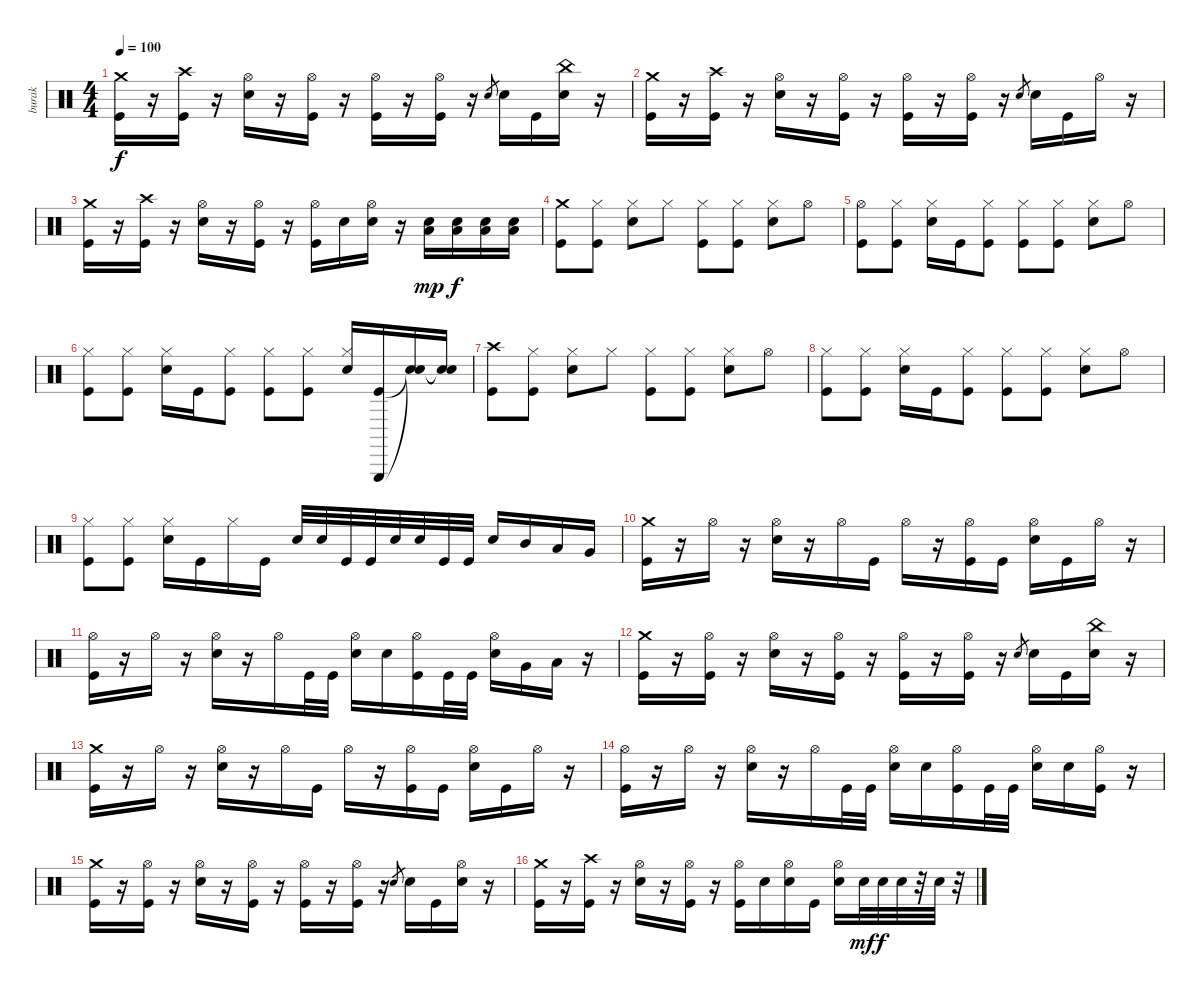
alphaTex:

\track ("burak" "burak") {instrument percussion}
\staff {score}
\articulation defaults
\ts (4 4)
\tempo 100
\clef neutral
\ks c
("Crash medium (hit)" "Kick (hit)").16{dy f} r.16 ("Crash high (hit)" "Kick (hit)").16 r.16 ("Hi-Hat (open)" "Electric Snare (hit)").16 r.16 ("Hi-Hat (open)" "Kick (hit)").16 r.16 ("Hi-Hat (open)" "Kick (hit)").16 r.16 ("Hi-Hat (open)" "Kick (hit)").16 r.16 "Electric Snare (hit)".8{gr} "Electric Snare (hit)".16 "Kick (hit)".16 ("China (hit)" "Electric Snare (hit)").16 r.16 |
("Crash medium (hit)" "Kick (hit)").16 r.16 ("Crash high (hit)" "Kick (hit)").16 r.16 ("Hi-Hat (open)" "Electric Snare (hit)").16 r.16 ("Hi-Hat (open)" "Kick (hit)").16 r.16 ("Hi-Hat (open)" "Kick (hit)").16 r.16 ("Hi-Hat (open)" "Kick (hit)").16 r.16 "Electric Snare (hit)".8{gr} "Electric Snare (hit)".16 "Kick (hit)".16 "Hi-Hat (open)".16 r.16 |
("Crash medium (hit)" "Kick (hit)").16 r.16 ("Crash high (hit)" "Kick (hit)").16 r.16 ("Hi-Hat (open)" "Electric Snare (hit)").16 r.16 ("Hi-Hat (open)" "Kick (hit)").16 r.16 ("Hi-Hat (open)" "Kick (hit)").16 "Electric Snare (hit)".16 ("Hi-Hat (open)" "Electric Snare (hit)").16 r.16 ("Low Floor Tom (hit)" "Electric Snare (hit)").16{dy mp} ("Low Floor Tom (hit)" "Electric Snare (hit)").16{dy f} ("Low Floor Tom (hit)" "Electric Snare (hit)").16 ("Low Floor Tom (hit)" "Electric Snare (hit)").16 |
("Crash medium (hit)" "Kick (hit)").8 ("Hi-Hat (closed)" "Kick (hit)").8 ("Hi-Hat (closed)" "Electric Snare (hit)").8 "Hi-Hat (closed)".8 ("Hi-Hat (closed)" "Kick (hit)").8 ("Hi-Hat (closed)" "Kick (hit)").8 ("Hi-Hat (closed)" "Electric Snare (hit)").8 "Hi-Hat (open)".8 |
("Hi-Hat (open)" "Kick (hit)").8 ("Hi-Hat (closed)" "Kick (hit)").8 ("Hi-Hat (closed)" "Electric Snare (hit)").16 "Kick (hit)".16 ("Hi-Hat (closed)" "Kick (hit)").8 ("Hi-Hat (closed)" "Kick (hit)").8 ("Hi-Hat (closed)" "Kick (hit)").8 ("Hi-Hat (closed)" "Electric Snare (hit)").8 "Hi-Hat (open)".8 |
("Hi-Hat (closed)" "Kick (hit)").8 ("Hi-Hat (closed)" "Kick (hit)").8 ("Hi-Hat (closed)" "Electric Snare (hit)").16 "Kick (hit)".16 ("Hi-Hat (closed)" "Kick (hit)").8 ("Hi-Hat (closed)" "Kick (hit)").8 ("Hi-Hat (closed)" "Kick (hit)").8 ("Hi-Hat (closed)" "Electric Snare (hit)").16 ("Triangle (hit)" "Kick (hit)").16 ("Snare (hit)"{t} "Snare (hit)"{t}).16 ("Snare (hit)"{t} "Snare (hit)"{t}).16 |
("Crash high (hit)" "Kick (hit)").8 ("Hi-Hat (closed)" "Kick (hit)").8 ("Hi-Hat (closed)" "Electric Snare (hit)").8 "Hi-Hat (closed)".8 ("Hi-Hat (closed)" "Kick (hit)").8 ("Hi-Hat (closed)" "Kick (hit)").8 ("Hi-Hat (closed)" "Electric Snare (hit)").8 "Hi-Hat (open)".8 |
("Hi-Hat (closed)" "Kick (hit)").8 ("Hi-Hat (closed)" "Kick (hit)").8 ("Hi-Hat (closed)" "Electric Snare (hit)").16 "Kick (hit)".16 ("Hi-Hat (closed)" "Kick (hit)").8 ("Hi-Hat (closed)" "Kick (hit)").8 ("Hi-Hat (closed)" "Kick (hit)").8 ("Hi-Hat (closed)" "Electric Snare (hit)").8 "Hi-Hat (open)".8 |
("Hi-Hat (closed)" "Kick (hit)").8 ("Hi-Hat (closed)" "Kick (hit)").8 ("Hi-Hat (closed)" "Electric Snare (hit)").16 "Kick (hit)".16 "Hi-Hat (closed)".16 "Kick (hit)".16 "Electric Snare (hit)".32 "Electric Snare (hit)".32 "Kick (hit)".32 "Kick (hit)".32 "Electric Snare (hit)".32 "Electric Snare (hit)".32 "Kick (hit)".32 "Kick (hit)".32 "Electric Snare (hit)".16 "Mid Tom (hit)".16 "Low Tom (hit)".16 "Very Low Tom (hit)".16 |
("Crash medium (hit)" "Kick (hit)").16 r.16 "Hi-Hat (open)".16 r.16 ("Hi-Hat (open)" "Electric Snare (hit)").16 r.16 "Hi-Hat (open)".16 "Kick (hit)".16 "Hi-Hat (open)".16 r.16 ("Hi-Hat (open)" "Kick (hit)").16 "Kick (hit)".16 ("Hi-Hat (open)" "Electric Snare (hit)").16 "Kick (hit)".16 "Hi-Hat (open)".16 r.16 |
("Hi-Hat (open)" "Kick (hit)").16 r.16 "Hi-Hat (open)".16 r.16 ("Hi-Hat (open)" "Electric Snare (hit)").16 r.16 "Hi-Hat (open)".16 "Kick (hit)".32 "Kick (hit)".32 ("Hi-Hat (open)" "Electric Snare (hit)").16 "Electric Snare (hit)".16 ("Hi-Hat (open)" "Kick (hit)").16 "Kick (hit)".32 "Kick (hit)".32 ("Hi-Hat (open)" "Electric Snare (hit)").16 "Very Low Tom (hit)".16 "Low Floor Tom (hit)".16 r.16 |
("Crash medium (hit)" "Kick (hit)").16 r.16 ("Hi-Hat (open)" "Kick (hit)").16 r.16 ("Hi-Hat (open)" "Electric Snare (hit)").16 r.16 ("Hi-Hat (open)" "Kick (hit)").16 r.16 ("Hi-Hat (open)" "Kick (hit)").16 r.16 ("Hi-Hat (open)" "Kick (hit)").16 r.16 "Electric Snare (hit)".8{gr} "Electric Snare (hit)".16 "Kick (hit)".16 ("China (hit)" "Electric Snare (hit)").16 r.16 |
("Crash medium (hit)" "Kick (hit)").16 r.16 "Hi-Hat (open)".16 r.16 ("Hi-Hat (open)" "Electric Snare (hit)").16 r.16 "Hi-Hat (open)".16 "Kick (hit)".16 "Hi-Hat (open)".16 r.16 ("Hi-Hat (open)" "Kick (hit)").16 "Kick (hit)".16 ("Hi-Hat (open)" "Electric Snare (hit)").16 "Kick (hit)".16 "Hi-Hat (open)".16 r.16 |
("Hi-Hat (open)" "Kick (hit)").16 r.16 "Hi-Hat (open)".16 r.16 ("Hi-Hat (open)" "Electric Snare (hit)").16 r.16 "Hi-Hat (open)".16 "Kick (hit)".32 "Kick (hit)".32 ("Hi-Hat (open)" "Electric Snare (hit)").16 "Electric Snare (hit)".16 ("Hi-Hat (open)" "Kick (hit)").16 "Kick (hit)".32 "Kick (hit)".32 ("Hi-Hat (open)" "Electric Snare (hit)").16 "Electric Snare (hit)".16 ("Hi-Hat (open)" "Kick (hit)").16 r.16 |
("Crash medium (hit)" "Kick (hit)").16 r.16 ("Hi-Hat (open)" "Kick (hit)").16 r.16 ("Hi-Hat (open)" "Electric Snare (hit)").16 r.16 ("Hi-Hat (open)" "Kick (hit)").16 r.16 ("Hi-Hat (open)" "Kick (hit)").16 r.16 ("Hi-Hat (open)" "Kick (hit)").16 r.16 "Electric Snare (hit)".8{gr} "Electric Snare (hit)".16 "Kick (hit)".16 ("Hi-Hat (open)" "Electric Snare (hit)").16 r.16 |
("Crash medium (hit)" "Kick (hit)").16 r.16 ("Crash high (hit)" "Kick (hit)").16 r.16 ("Hi-Hat (open)" "Electric Snare (hit)").16 r.16 ("Hi-Hat (open)" "Kick (hit)").16 r.16 ("Hi-Hat (open)" "Kick (hit)").16 "Electric Snare (hit)".16 ("Hi-Hat (open)" "Electric Snare (hit)").16 "Kick (hit)".16 ("Hi-Hat (open)" "Electric Snare (hit)").16 "Electric Snare (hit)".32{dy mf} "Electric Snare (hit)".32{dy f} "Electric Snare (hit)".32 r.32 "Electric Snare (hit)".32 r.32
